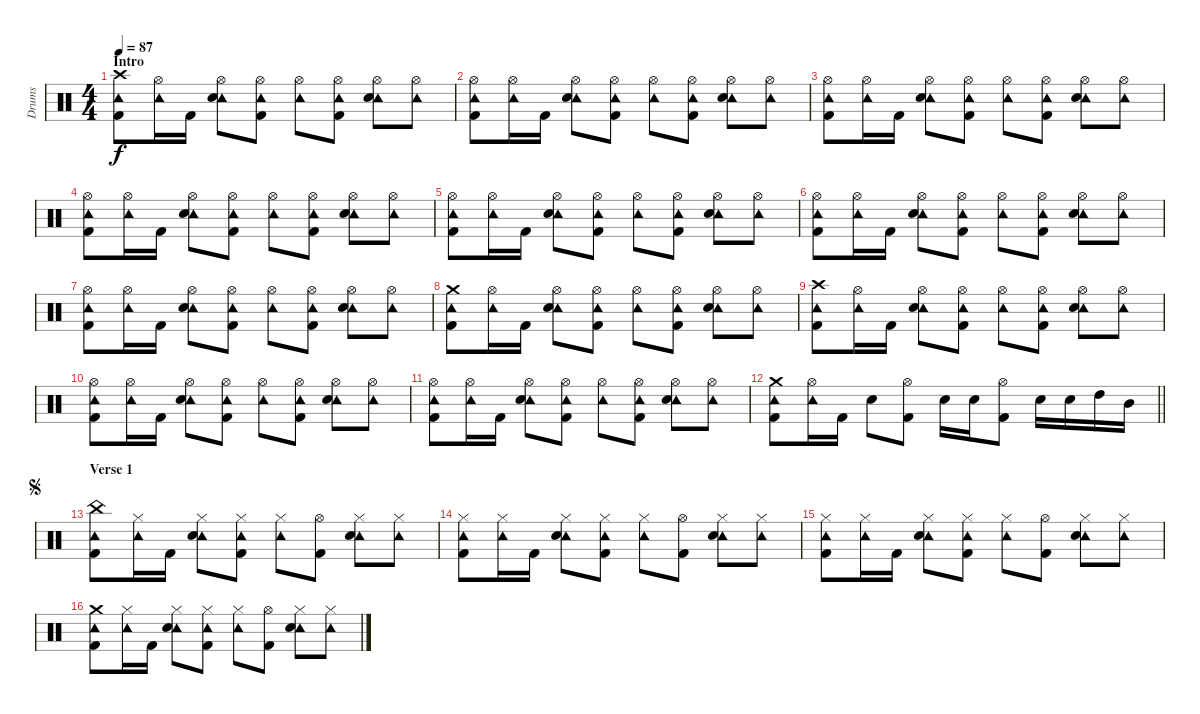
\track ("Drums" "Drums") {instrument percussion}
\staff {score}
\articulation defaults
\ts (4 4)
\section ("" "Intro")
\tempo 87
\clef neutral
\ks c
("Tambourine (hit)" "Crash high (hit)" "Kick (hit) 2").8{dy f volume 0} ("Tambourine (hit)" "Hi-Hat (open)").16{volume 6} "Kick (hit) 2".16 ("Tambourine (hit)" "Hi-Hat (open)" "Snare (hit) 2").8 ("Tambourine (hit)" "Hi-Hat (open)" "Kick (hit) 2").8 ("Tambourine (hit)" "Hi-Hat (open)").8 ("Tambourine (hit)" "Hi-Hat (open)" "Kick (hit) 2").8 ("Tambourine (hit)" "Hi-Hat (open)" "Snare (hit) 2").8 ("Tambourine (hit)" "Hi-Hat (open)").8 |
("Tambourine (hit)" "Hi-Hat (open)" "Kick (hit) 2").8 ("Tambourine (hit)" "Hi-Hat (open)").16 "Kick (hit) 2".16 ("Tambourine (hit)" "Hi-Hat (open)" "Snare (hit) 2").8 ("Tambourine (hit)" "Hi-Hat (open)" "Kick (hit) 2").8 ("Tambourine (hit)" "Hi-Hat (open)").8 ("Tambourine (hit)" "Hi-Hat (open)" "Kick (hit) 2").8 ("Tambourine (hit)" "Hi-Hat (open)" "Snare (hit) 2").8 ("Tambourine (hit)" "Hi-Hat (open)").8 |
("Tambourine (hit)" "Hi-Hat (open)" "Kick (hit) 2").8{volume 10} ("Tambourine (hit)" "Hi-Hat (open)").16 "Kick (hit) 2".16 ("Tambourine (hit)" "Hi-Hat (open)" "Snare (hit) 2").8 ("Tambourine (hit)" "Hi-Hat (open)" "Kick (hit) 2").8 ("Tambourine (hit)" "Hi-Hat (open)").8 ("Tambourine (hit)" "Hi-Hat (open)" "Kick (hit) 2").8 ("Tambourine (hit)" "Hi-Hat (open)" "Snare (hit) 2").8 ("Tambourine (hit)" "Hi-Hat (open)").8 |
("Tambourine (hit)" "Hi-Hat (open)" "Kick (hit) 2").8 ("Tambourine (hit)" "Hi-Hat (open)").16 "Kick (hit) 2".16 ("Tambourine (hit)" "Hi-Hat (open)" "Snare (hit) 2").8 ("Tambourine (hit)" "Hi-Hat (open)" "Kick (hit) 2").8 ("Tambourine (hit)" "Hi-Hat (open)").8 ("Tambourine (hit)" "Hi-Hat (open)" "Kick (hit) 2").8 ("Tambourine (hit)" "Hi-Hat (open)" "Snare (hit) 2").8 ("Tambourine (hit)" "Hi-Hat (open)").8 |
("Tambourine (hit)" "Hi-Hat (open)" "Kick (hit) 2").8{volume 14} ("Tambourine (hit)" "Hi-Hat (open)").16 "Kick (hit) 2".16 ("Tambourine (hit)" "Hi-Hat (open)" "Snare (hit) 2").8 ("Tambourine (hit)" "Hi-Hat (open)" "Kick (hit) 2").8 ("Tambourine (hit)" "Hi-Hat (open)").8 ("Tambourine (hit)" "Hi-Hat (open)" "Kick (hit) 2").8 ("Tambourine (hit)" "Hi-Hat (open)" "Snare (hit) 2").8 ("Tambourine (hit)" "Hi-Hat (open)").8 |
("Tambourine (hit)" "Hi-Hat (open)" "Kick (hit) 2").8 ("Tambourine (hit)" "Hi-Hat (open)").16 "Kick (hit) 2".16 ("Tambourine (hit)" "Hi-Hat (open)" "Snare (hit) 2").8 ("Tambourine (hit)" "Hi-Hat (open)" "Kick (hit) 2").8 ("Tambourine (hit)" "Hi-Hat (open)").8 ("Tambourine (hit)" "Hi-Hat (open)" "Kick (hit) 2").8 ("Tambourine (hit)" "Hi-Hat (open)" "Snare (hit) 2").8 ("Tambourine (hit)" "Hi-Hat (open)").8 |
("Tambourine (hit)" "Hi-Hat (open)" "Kick (hit) 2").8 ("Tambourine (hit)" "Hi-Hat (open)").16 "Kick (hit) 2".16 ("Tambourine (hit)" "Hi-Hat (open)" "Snare (hit) 2").8 ("Tambourine (hit)" "Hi-Hat (open)" "Kick (hit) 2").8 ("Tambourine (hit)" "Hi-Hat (open)").8 ("Tambourine (hit)" "Hi-Hat (open)" "Kick (hit) 2").8 ("Tambourine (hit)" "Hi-Hat (open)" "Snare (hit) 2").8 ("Tambourine (hit)" "Hi-Hat (open)").8 |
("Tambourine (hit)" "Crash medium (hit)" "Kick (hit) 2").8 ("Tambourine (hit)" "Hi-Hat (open)").16 "Kick (hit) 2".16 ("Tambourine (hit)" "Hi-Hat (open)" "Snare (hit) 2").8 ("Tambourine (hit)" "Hi-Hat (open)" "Kick (hit) 2").8 ("Tambourine (hit)" "Hi-Hat (open)").8 ("Tambourine (hit)" "Hi-Hat (open)" "Kick (hit) 2").8 ("Tambourine (hit)" "Hi-Hat (open)" "Snare (hit) 2").8 ("Tambourine (hit)" "Hi-Hat (open)").8 |
("Tambourine (hit)" "Crash high (hit)" "Kick (hit) 2").8 ("Tambourine (hit)" "Hi-Hat (open)").16 "Kick (hit) 2".16 ("Tambourine (hit)" "Hi-Hat (open)" "Snare (hit) 2").8 ("Tambourine (hit)" "Hi-Hat (open)" "Kick (hit) 2").8 ("Tambourine (hit)" "Hi-Hat (open)").8 ("Tambourine (hit)" "Hi-Hat (open)" "Kick (hit) 2").8 ("Tambourine (hit)" "Hi-Hat (open)" "Snare (hit) 2").8 ("Tambourine (hit)" "Hi-Hat (open)").8 |
("Tambourine (hit)" "Hi-Hat (open)" "Kick (hit) 2").8 ("Tambourine (hit)" "Hi-Hat (open)").16 "Kick (hit) 2".16 ("Tambourine (hit)" "Hi-Hat (open)" "Snare (hit) 2").8 ("Tambourine (hit)" "Hi-Hat (open)" "Kick (hit) 2").8 ("Tambourine (hit)" "Hi-Hat (open)").8 ("Tambourine (hit)" "Hi-Hat (open)" "Kick (hit) 2").8 ("Tambourine (hit)" "Hi-Hat (open)" "Snare (hit) 2").8 ("Tambourine (hit)" "Hi-Hat (open)").8 |
("Tambourine (hit)" "Hi-Hat (open)" "Kick (hit) 2").8 ("Tambourine (hit)" "Hi-Hat (open)").16 "Kick (hit) 2".16 ("Tambourine (hit)" "Hi-Hat (open)" "Snare (hit) 2").8 ("Tambourine (hit)" "Hi-Hat (open)" "Kick (hit) 2").8 ("Tambourine (hit)" "Hi-Hat (open)").8 ("Tambourine (hit)" "Hi-Hat (open)" "Kick (hit) 2").8 ("Tambourine (hit)" "Hi-Hat (open)" "Snare (hit) 2").8 ("Tambourine (hit)" "Hi-Hat (open)").8 |
\barLineRight lightlight
("Tambourine (hit)" "Crash medium (hit)" "Kick (hit) 2").8 ("Tambourine (hit)" "Hi-Hat (open)").16 "Kick (hit) 2".16 "Snare (hit) 2".8 ("Hi-Hat (open)" "Kick (hit) 2").8 "Snare (hit) 2".16 "Snare (hit) 2".16 ("Hi-Hat (open)" "Kick (hit) 2").8 "Snare (hit) 2".16 "Snare (hit) 2".16 "High Tom (hit)".16 "Mid Tom (hit)".16 |
\section ("" "Verse 1")
\jump segno
("Tambourine (hit)" "China (hit)" "Kick (hit) 2").8 ("Tambourine (hit)" "Hi-Hat (closed)").16 "Kick (hit) 2".16 ("Tambourine (hit)" "Hi-Hat (closed)" "Snare (hit) 2").8 ("Tambourine (hit)" "Hi-Hat (closed)" "Kick (hit) 2").8 ("Tambourine (hit)" "Hi-Hat (closed)").8 ("Hi-Hat (open)" "Kick (hit) 2").8 ("Tambourine (hit)" "Hi-Hat (closed)" "Snare (hit) 2").8 ("Tambourine (hit)" "Hi-Hat (closed)").8 |
("Tambourine (hit)" "Hi-Hat (closed)" "Kick (hit) 2").8 ("Tambourine (hit)" "Hi-Hat (closed)").16 "Kick (hit) 2".16 ("Tambourine (hit)" "Hi-Hat (closed)" "Snare (hit) 2").8 ("Tambourine (hit)" "Hi-Hat (closed)" "Kick (hit) 2").8 ("Tambourine (hit)" "Hi-Hat (closed)").8 ("Hi-Hat (open)" "Kick (hit) 2").8 ("Tambourine (hit)" "Hi-Hat (closed)" "Snare (hit) 2").8 ("Tambourine (hit)" "Hi-Hat (closed)").8 |
("Tambourine (hit)" "Hi-Hat (closed)" "Kick (hit) 2").8 ("Tambourine (hit)" "Hi-Hat (closed)").16 "Kick (hit) 2".16 ("Tambourine (hit)" "Hi-Hat (closed)" "Snare (hit) 2").8 ("Tambourine (hit)" "Hi-Hat (closed)" "Kick (hit) 2").8 ("Tambourine (hit)" "Hi-Hat (closed)").8 ("Hi-Hat (open)" "Kick (hit) 2").8 ("Tambourine (hit)" "Hi-Hat (closed)" "Snare (hit) 2").8 ("Tambourine (hit)" "Hi-Hat (closed)").8 |
("Tambourine (hit)" "Crash medium (hit)" "Kick (hit) 2").8 ("Tambourine (hit)" "Hi-Hat (closed)").16 "Kick (hit) 2".16 ("Tambourine (hit)" "Hi-Hat (closed)" "Snare (hit) 2").8 ("Tambourine (hit)" "Hi-Hat (closed)" "Kick (hit) 2").8 ("Tambourine (hit)" "Hi-Hat (closed)").8 ("Hi-Hat (open)" "Kick (hit) 2").8 ("Tambourine (hit)" "Hi-Hat (closed)" "Snare (hit) 2").8 ("Tambourine (hit)" "Hi-Hat (closed)").8
